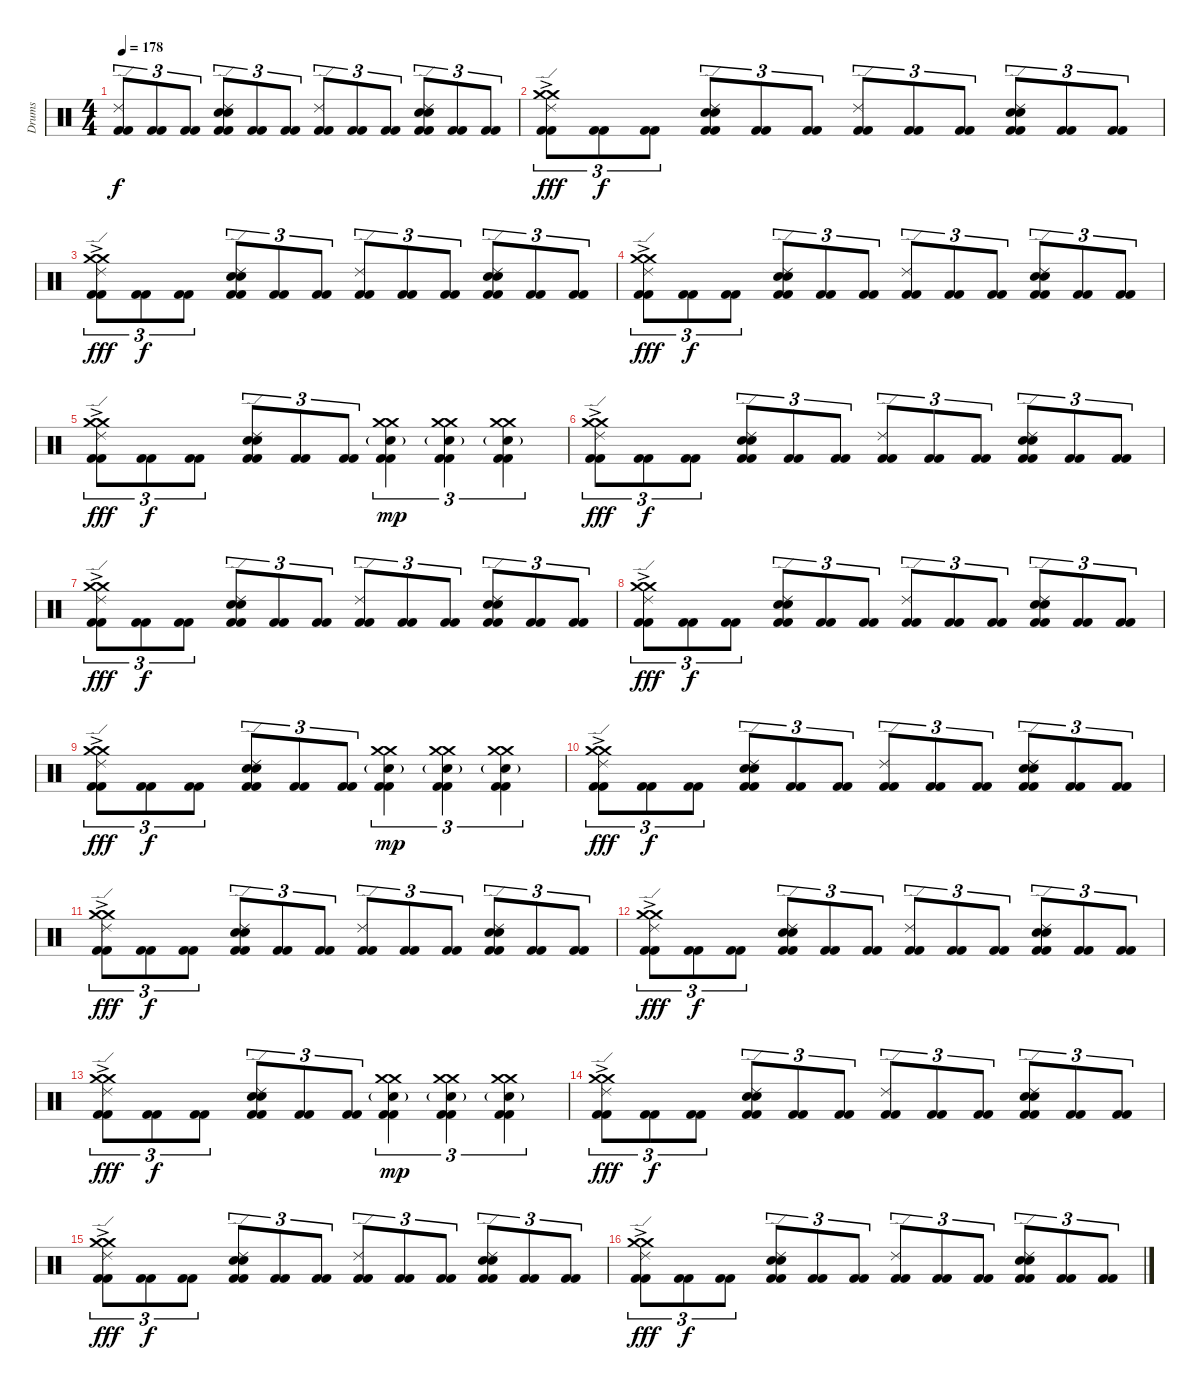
\track ("Drums" "Drums") {instrument percussion}
\staff {score}
\articulation defaults
\ts (4 4)
\tempo 178
\clef neutral
\ks c
("Ride (edge) 2" "Kick (hit) 2" "Kick (hit) 2").8{tu (3 2) dy f} ("Kick (hit) 2" "Kick (hit) 2").8{tu (3 2)} ("Kick (hit) 2" "Kick (hit) 2").8{tu (3 2)} ("Ride (edge) 2" "Snare (hit) 2" "Electric Snare (hit)" "Kick (hit) 2" "Kick (hit) 2").8{tu (3 2)} ("Kick (hit) 2" "Kick (hit) 2").8{tu (3 2)} ("Kick (hit) 2" "Kick (hit) 2").8{tu (3 2)} ("Ride (edge) 2" "Kick (hit) 2" "Kick (hit) 2").8{tu (3 2)} ("Kick (hit) 2" "Kick (hit) 2").8{tu (3 2)} ("Kick (hit) 2" "Kick (hit) 2").8{tu (3 2)} ("Ride (edge) 2" "Snare (hit) 2" "Electric Snare (hit)" "Kick (hit) 2" "Kick (hit) 2").8{tu (3 2)} ("Kick (hit) 2" "Kick (hit) 2").8{tu (3 2)} ("Kick (hit) 2" "Kick (hit) 2").8{tu (3 2)} |
("Crash medium (hit)"{ac} "Crash medium (hit)"{ac} "Ride (edge) 2" "Kick (hit) 2" "Kick (hit) 2").8{tu (3 2) dy fff} ("Kick (hit) 2" "Kick (hit) 2").8{tu (3 2) dy f} ("Kick (hit) 2" "Kick (hit) 2").8{tu (3 2)} ("Ride (edge) 2" "Snare (hit) 2" "Electric Snare (hit)" "Kick (hit) 2" "Kick (hit) 2").8{tu (3 2)} ("Kick (hit) 2" "Kick (hit) 2").8{tu (3 2)} ("Kick (hit) 2" "Kick (hit) 2").8{tu (3 2)} ("Ride (edge) 2" "Kick (hit) 2" "Kick (hit) 2").8{tu (3 2)} ("Kick (hit) 2" "Kick (hit) 2").8{tu (3 2)} ("Kick (hit) 2" "Kick (hit) 2").8{tu (3 2)} ("Ride (edge) 2" "Snare (hit) 2" "Electric Snare (hit)" "Kick (hit) 2" "Kick (hit) 2").8{tu (3 2)} ("Kick (hit) 2" "Kick (hit) 2").8{tu (3 2)} ("Kick (hit) 2" "Kick (hit) 2").8{tu (3 2)} |
("Crash medium (hit)"{ac} "Crash medium (hit)"{ac} "Ride (edge) 2" "Kick (hit) 2" "Kick (hit) 2").8{tu (3 2) dy fff} ("Kick (hit) 2" "Kick (hit) 2").8{tu (3 2) dy f} ("Kick (hit) 2" "Kick (hit) 2").8{tu (3 2)} ("Ride (edge) 2" "Snare (hit) 2" "Electric Snare (hit)" "Kick (hit) 2" "Kick (hit) 2").8{tu (3 2)} ("Kick (hit) 2" "Kick (hit) 2").8{tu (3 2)} ("Kick (hit) 2" "Kick (hit) 2").8{tu (3 2)} ("Ride (edge) 2" "Kick (hit) 2" "Kick (hit) 2").8{tu (3 2)} ("Kick (hit) 2" "Kick (hit) 2").8{tu (3 2)} ("Kick (hit) 2" "Kick (hit) 2").8{tu (3 2)} ("Ride (edge) 2" "Snare (hit) 2" "Electric Snare (hit)" "Kick (hit) 2" "Kick (hit) 2").8{tu (3 2)} ("Kick (hit) 2" "Kick (hit) 2").8{tu (3 2)} ("Kick (hit) 2" "Kick (hit) 2").8{tu (3 2)} |
("Crash medium (hit)"{ac} "Crash medium (hit)"{ac} "Ride (edge) 2" "Kick (hit) 2" "Kick (hit) 2").8{tu (3 2) dy fff} ("Kick (hit) 2" "Kick (hit) 2").8{tu (3 2) dy f} ("Kick (hit) 2" "Kick (hit) 2").8{tu (3 2)} ("Ride (edge) 2" "Snare (hit) 2" "Electric Snare (hit)" "Kick (hit) 2" "Kick (hit) 2").8{tu (3 2)} ("Kick (hit) 2" "Kick (hit) 2").8{tu (3 2)} ("Kick (hit) 2" "Kick (hit) 2").8{tu (3 2)} ("Ride (edge) 2" "Kick (hit) 2" "Kick (hit) 2").8{tu (3 2)} ("Kick (hit) 2" "Kick (hit) 2").8{tu (3 2)} ("Kick (hit) 2" "Kick (hit) 2").8{tu (3 2)} ("Ride (edge) 2" "Snare (hit) 2" "Electric Snare (hit)" "Kick (hit) 2" "Kick (hit) 2").8{tu (3 2)} ("Kick (hit) 2" "Kick (hit) 2").8{tu (3 2)} ("Kick (hit) 2" "Kick (hit) 2").8{tu (3 2)} |
("Crash medium (hit)"{ac} "Crash medium (hit)"{ac} "Ride (edge) 2" "Kick (hit) 2" "Kick (hit) 2").8{tu (3 2) dy fff} ("Kick (hit) 2" "Kick (hit) 2").8{tu (3 2) dy f} ("Kick (hit) 2" "Kick (hit) 2").8{tu (3 2)} ("Ride (edge) 2" "Snare (hit) 2" "Electric Snare (hit)" "Kick (hit) 2" "Kick (hit) 2").8{tu (3 2)} ("Kick (hit) 2" "Kick (hit) 2").8{tu (3 2)} ("Kick (hit) 2" "Kick (hit) 2").8{tu (3 2)} ("Crash medium (hit)" "Crash medium (hit)" "Snare (hit) 2"{g} "Kick (hit) 2" "Kick (hit) 2").4{tu (3 2) dy mp} ("Crash medium (hit)" "Crash medium (hit)" "Snare (hit) 2"{g} "Kick (hit) 2" "Kick (hit) 2").4{tu (3 2)} ("Crash medium (hit)" "Crash medium (hit)" "Snare (hit) 2"{g} "Kick (hit) 2" "Kick (hit) 2").4{tu (3 2)} |
("Crash medium (hit)"{ac} "Crash medium (hit)"{ac} "Ride (edge) 2" "Kick (hit) 2" "Kick (hit) 2").8{tu (3 2) dy fff} ("Kick (hit) 2" "Kick (hit) 2").8{tu (3 2) dy f} ("Kick (hit) 2" "Kick (hit) 2").8{tu (3 2)} ("Ride (edge) 2" "Snare (hit) 2" "Electric Snare (hit)" "Kick (hit) 2" "Kick (hit) 2").8{tu (3 2)} ("Kick (hit) 2" "Kick (hit) 2").8{tu (3 2)} ("Kick (hit) 2" "Kick (hit) 2").8{tu (3 2)} ("Ride (edge) 2" "Kick (hit) 2" "Kick (hit) 2").8{tu (3 2)} ("Kick (hit) 2" "Kick (hit) 2").8{tu (3 2)} ("Kick (hit) 2" "Kick (hit) 2").8{tu (3 2)} ("Ride (edge) 2" "Snare (hit) 2" "Electric Snare (hit)" "Kick (hit) 2" "Kick (hit) 2").8{tu (3 2)} ("Kick (hit) 2" "Kick (hit) 2").8{tu (3 2)} ("Kick (hit) 2" "Kick (hit) 2").8{tu (3 2)} |
("Crash medium (hit)"{ac} "Crash medium (hit)"{ac} "Ride (edge) 2" "Kick (hit) 2" "Kick (hit) 2").8{tu (3 2) dy fff} ("Kick (hit) 2" "Kick (hit) 2").8{tu (3 2) dy f} ("Kick (hit) 2" "Kick (hit) 2").8{tu (3 2)} ("Ride (edge) 2" "Snare (hit) 2" "Electric Snare (hit)" "Kick (hit) 2" "Kick (hit) 2").8{tu (3 2)} ("Kick (hit) 2" "Kick (hit) 2").8{tu (3 2)} ("Kick (hit) 2" "Kick (hit) 2").8{tu (3 2)} ("Ride (edge) 2" "Kick (hit) 2" "Kick (hit) 2").8{tu (3 2)} ("Kick (hit) 2" "Kick (hit) 2").8{tu (3 2)} ("Kick (hit) 2" "Kick (hit) 2").8{tu (3 2)} ("Ride (edge) 2" "Snare (hit) 2" "Electric Snare (hit)" "Kick (hit) 2" "Kick (hit) 2").8{tu (3 2)} ("Kick (hit) 2" "Kick (hit) 2").8{tu (3 2)} ("Kick (hit) 2" "Kick (hit) 2").8{tu (3 2)} |
("Crash medium (hit)"{ac} "Crash medium (hit)"{ac} "Ride (edge) 2" "Kick (hit) 2" "Kick (hit) 2").8{tu (3 2) dy fff} ("Kick (hit) 2" "Kick (hit) 2").8{tu (3 2) dy f} ("Kick (hit) 2" "Kick (hit) 2").8{tu (3 2)} ("Ride (edge) 2" "Snare (hit) 2" "Electric Snare (hit)" "Kick (hit) 2" "Kick (hit) 2").8{tu (3 2)} ("Kick (hit) 2" "Kick (hit) 2").8{tu (3 2)} ("Kick (hit) 2" "Kick (hit) 2").8{tu (3 2)} ("Ride (edge) 2" "Kick (hit) 2" "Kick (hit) 2").8{tu (3 2)} ("Kick (hit) 2" "Kick (hit) 2").8{tu (3 2)} ("Kick (hit) 2" "Kick (hit) 2").8{tu (3 2)} ("Ride (edge) 2" "Snare (hit) 2" "Electric Snare (hit)" "Kick (hit) 2" "Kick (hit) 2").8{tu (3 2)} ("Kick (hit) 2" "Kick (hit) 2").8{tu (3 2)} ("Kick (hit) 2" "Kick (hit) 2").8{tu (3 2)} |
("Crash medium (hit)"{ac} "Crash medium (hit)"{ac} "Ride (edge) 2" "Kick (hit) 2" "Kick (hit) 2").8{tu (3 2) dy fff} ("Kick (hit) 2" "Kick (hit) 2").8{tu (3 2) dy f} ("Kick (hit) 2" "Kick (hit) 2").8{tu (3 2)} ("Ride (edge) 2" "Snare (hit) 2" "Electric Snare (hit)" "Kick (hit) 2" "Kick (hit) 2").8{tu (3 2)} ("Kick (hit) 2" "Kick (hit) 2").8{tu (3 2)} ("Kick (hit) 2" "Kick (hit) 2").8{tu (3 2)} ("Crash medium (hit)" "Crash medium (hit)" "Snare (hit) 2"{g} "Kick (hit) 2" "Kick (hit) 2").4{tu (3 2) dy mp} ("Crash medium (hit)" "Crash medium (hit)" "Snare (hit) 2"{g} "Kick (hit) 2" "Kick (hit) 2").4{tu (3 2)} ("Crash medium (hit)" "Crash medium (hit)" "Snare (hit) 2"{g} "Kick (hit) 2" "Kick (hit) 2").4{tu (3 2)} |
("Crash medium (hit)"{ac} "Crash medium (hit)"{ac} "Ride (edge) 2" "Kick (hit) 2" "Kick (hit) 2").8{tu (3 2) dy fff} ("Kick (hit) 2" "Kick (hit) 2").8{tu (3 2) dy f} ("Kick (hit) 2" "Kick (hit) 2").8{tu (3 2)} ("Ride (edge) 2" "Snare (hit) 2" "Electric Snare (hit)" "Kick (hit) 2" "Kick (hit) 2").8{tu (3 2)} ("Kick (hit) 2" "Kick (hit) 2").8{tu (3 2)} ("Kick (hit) 2" "Kick (hit) 2").8{tu (3 2)} ("Ride (edge) 2" "Kick (hit) 2" "Kick (hit) 2").8{tu (3 2)} ("Kick (hit) 2" "Kick (hit) 2").8{tu (3 2)} ("Kick (hit) 2" "Kick (hit) 2").8{tu (3 2)} ("Ride (edge) 2" "Snare (hit) 2" "Electric Snare (hit)" "Kick (hit) 2" "Kick (hit) 2").8{tu (3 2)} ("Kick (hit) 2" "Kick (hit) 2").8{tu (3 2)} ("Kick (hit) 2" "Kick (hit) 2").8{tu (3 2)} |
("Crash medium (hit)"{ac} "Crash medium (hit)"{ac} "Ride (edge) 2" "Kick (hit) 2" "Kick (hit) 2").8{tu (3 2) dy fff} ("Kick (hit) 2" "Kick (hit) 2").8{tu (3 2) dy f} ("Kick (hit) 2" "Kick (hit) 2").8{tu (3 2)} ("Ride (edge) 2" "Snare (hit) 2" "Electric Snare (hit)" "Kick (hit) 2" "Kick (hit) 2").8{tu (3 2)} ("Kick (hit) 2" "Kick (hit) 2").8{tu (3 2)} ("Kick (hit) 2" "Kick (hit) 2").8{tu (3 2)} ("Ride (edge) 2" "Kick (hit) 2" "Kick (hit) 2").8{tu (3 2)} ("Kick (hit) 2" "Kick (hit) 2").8{tu (3 2)} ("Kick (hit) 2" "Kick (hit) 2").8{tu (3 2)} ("Ride (edge) 2" "Snare (hit) 2" "Electric Snare (hit)" "Kick (hit) 2" "Kick (hit) 2").8{tu (3 2)} ("Kick (hit) 2" "Kick (hit) 2").8{tu (3 2)} ("Kick (hit) 2" "Kick (hit) 2").8{tu (3 2)} |
("Crash medium (hit)"{ac} "Crash medium (hit)"{ac} "Ride (edge) 2" "Kick (hit) 2" "Kick (hit) 2").8{tu (3 2) dy fff} ("Kick (hit) 2" "Kick (hit) 2").8{tu (3 2) dy f} ("Kick (hit) 2" "Kick (hit) 2").8{tu (3 2)} ("Ride (edge) 2" "Snare (hit) 2" "Electric Snare (hit)" "Kick (hit) 2" "Kick (hit) 2").8{tu (3 2)} ("Kick (hit) 2" "Kick (hit) 2").8{tu (3 2)} ("Kick (hit) 2" "Kick (hit) 2").8{tu (3 2)} ("Ride (edge) 2" "Kick (hit) 2" "Kick (hit) 2").8{tu (3 2)} ("Kick (hit) 2" "Kick (hit) 2").8{tu (3 2)} ("Kick (hit) 2" "Kick (hit) 2").8{tu (3 2)} ("Ride (edge) 2" "Snare (hit) 2" "Electric Snare (hit)" "Kick (hit) 2" "Kick (hit) 2").8{tu (3 2)} ("Kick (hit) 2" "Kick (hit) 2").8{tu (3 2)} ("Kick (hit) 2" "Kick (hit) 2").8{tu (3 2)} |
("Crash medium (hit)"{ac} "Crash medium (hit)"{ac} "Ride (edge) 2" "Kick (hit) 2" "Kick (hit) 2").8{tu (3 2) dy fff} ("Kick (hit) 2" "Kick (hit) 2").8{tu (3 2) dy f} ("Kick (hit) 2" "Kick (hit) 2").8{tu (3 2)} ("Ride (edge) 2" "Snare (hit) 2" "Electric Snare (hit)" "Kick (hit) 2" "Kick (hit) 2").8{tu (3 2)} ("Kick (hit) 2" "Kick (hit) 2").8{tu (3 2)} ("Kick (hit) 2" "Kick (hit) 2").8{tu (3 2)} ("Crash medium (hit)" "Crash medium (hit)" "Snare (hit) 2"{g} "Kick (hit) 2" "Kick (hit) 2").4{tu (3 2) dy mp} ("Crash medium (hit)" "Crash medium (hit)" "Snare (hit) 2"{g} "Kick (hit) 2" "Kick (hit) 2").4{tu (3 2)} ("Crash medium (hit)" "Crash medium (hit)" "Snare (hit) 2"{g} "Kick (hit) 2" "Kick (hit) 2").4{tu (3 2)} |
("Crash medium (hit)"{ac} "Crash medium (hit)"{ac} "Ride (edge) 2" "Kick (hit) 2" "Kick (hit) 2").8{tu (3 2) dy fff} ("Kick (hit) 2" "Kick (hit) 2").8{tu (3 2) dy f} ("Kick (hit) 2" "Kick (hit) 2").8{tu (3 2)} ("Ride (edge) 2" "Snare (hit) 2" "Electric Snare (hit)" "Kick (hit) 2" "Kick (hit) 2").8{tu (3 2)} ("Kick (hit) 2" "Kick (hit) 2").8{tu (3 2)} ("Kick (hit) 2" "Kick (hit) 2").8{tu (3 2)} ("Ride (edge) 2" "Kick (hit) 2" "Kick (hit) 2").8{tu (3 2)} ("Kick (hit) 2" "Kick (hit) 2").8{tu (3 2)} ("Kick (hit) 2" "Kick (hit) 2").8{tu (3 2)} ("Ride (edge) 2" "Snare (hit) 2" "Electric Snare (hit)" "Kick (hit) 2" "Kick (hit) 2").8{tu (3 2)} ("Kick (hit) 2" "Kick (hit) 2").8{tu (3 2)} ("Kick (hit) 2" "Kick (hit) 2").8{tu (3 2)} |
("Crash medium (hit)"{ac} "Crash medium (hit)"{ac} "Ride (edge) 2" "Kick (hit) 2" "Kick (hit) 2").8{tu (3 2) dy fff} ("Kick (hit) 2" "Kick (hit) 2").8{tu (3 2) dy f} ("Kick (hit) 2" "Kick (hit) 2").8{tu (3 2)} ("Ride (edge) 2" "Snare (hit) 2" "Electric Snare (hit)" "Kick (hit) 2" "Kick (hit) 2").8{tu (3 2)} ("Kick (hit) 2" "Kick (hit) 2").8{tu (3 2)} ("Kick (hit) 2" "Kick (hit) 2").8{tu (3 2)} ("Ride (edge) 2" "Kick (hit) 2" "Kick (hit) 2").8{tu (3 2)} ("Kick (hit) 2" "Kick (hit) 2").8{tu (3 2)} ("Kick (hit) 2" "Kick (hit) 2").8{tu (3 2)} ("Ride (edge) 2" "Snare (hit) 2" "Electric Snare (hit)" "Kick (hit) 2" "Kick (hit) 2").8{tu (3 2)} ("Kick (hit) 2" "Kick (hit) 2").8{tu (3 2)} ("Kick (hit) 2" "Kick (hit) 2").8{tu (3 2)} |
("Crash medium (hit)"{ac} "Crash medium (hit)"{ac} "Ride (edge) 2" "Kick (hit) 2" "Kick (hit) 2").8{tu (3 2) dy fff} ("Kick (hit) 2" "Kick (hit) 2").8{tu (3 2) dy f} ("Kick (hit) 2" "Kick (hit) 2").8{tu (3 2)} ("Ride (edge) 2" "Snare (hit) 2" "Electric Snare (hit)" "Kick (hit) 2" "Kick (hit) 2").8{tu (3 2)} ("Kick (hit) 2" "Kick (hit) 2").8{tu (3 2)} ("Kick (hit) 2" "Kick (hit) 2").8{tu (3 2)} ("Ride (edge) 2" "Kick (hit) 2" "Kick (hit) 2").8{tu (3 2)} ("Kick (hit) 2" "Kick (hit) 2").8{tu (3 2)} ("Kick (hit) 2" "Kick (hit) 2").8{tu (3 2)} ("Ride (edge) 2" "Snare (hit) 2" "Electric Snare (hit)" "Kick (hit) 2" "Kick (hit) 2").8{tu (3 2)} ("Kick (hit) 2" "Kick (hit) 2").8{tu (3 2)} ("Kick (hit) 2" "Kick (hit) 2").8{tu (3 2)}
